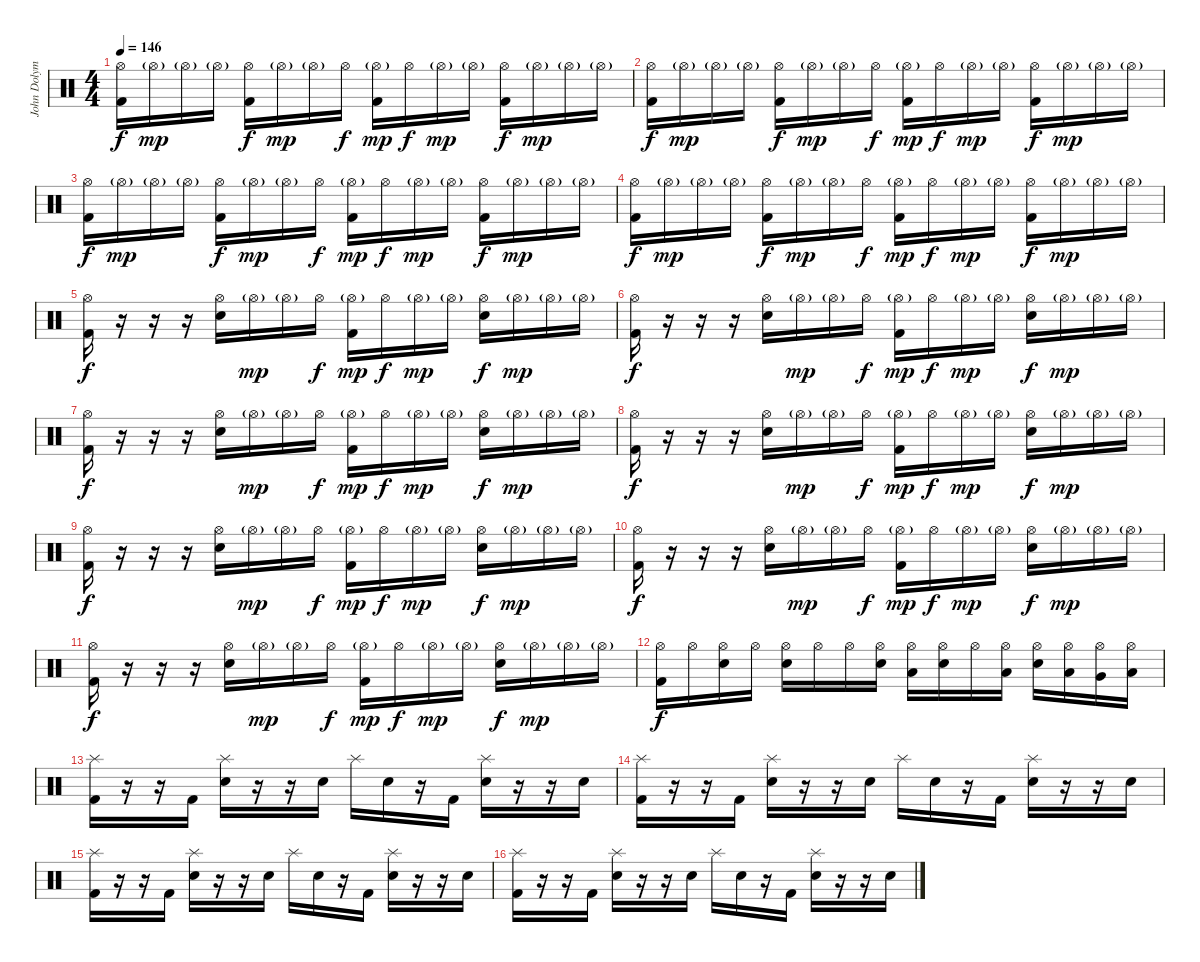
\track ("John Dolyman" "John Dolym") {instrument percussion}
\staff {score}
\articulation defaults
\ts (4 4)
\tempo 146
\clef neutral
\ks c
("Hi-Hat (open)" "Kick (hit) 2").16{dy f} "Hi-Hat (open)"{g}.16{dy mp} "Hi-Hat (open)"{g}.16 "Hi-Hat (open)"{g}.16 ("Hi-Hat (open)" "Kick (hit) 2").16{dy f} "Hi-Hat (open)"{g}.16{dy mp} "Hi-Hat (open)"{g}.16 "Hi-Hat (open)".16{dy f} ("Hi-Hat (open)"{g} "Kick (hit) 2").16{dy mp} "Hi-Hat (open)".16{dy f} "Hi-Hat (open)"{g}.16{dy mp} "Hi-Hat (open)"{g}.16 ("Hi-Hat (open)" "Kick (hit) 2").16{dy f} "Hi-Hat (open)"{g}.16{dy mp} "Hi-Hat (open)"{g}.16 "Hi-Hat (open)"{g}.16 |
("Hi-Hat (open)" "Kick (hit) 2").16{dy f} "Hi-Hat (open)"{g}.16{dy mp} "Hi-Hat (open)"{g}.16 "Hi-Hat (open)"{g}.16 ("Hi-Hat (open)" "Kick (hit) 2").16{dy f} "Hi-Hat (open)"{g}.16{dy mp} "Hi-Hat (open)"{g}.16 "Hi-Hat (open)".16{dy f} ("Hi-Hat (open)"{g} "Kick (hit) 2").16{dy mp} "Hi-Hat (open)".16{dy f} "Hi-Hat (open)"{g}.16{dy mp} "Hi-Hat (open)"{g}.16 ("Hi-Hat (open)" "Kick (hit) 2").16{dy f} "Hi-Hat (open)"{g}.16{dy mp} "Hi-Hat (open)"{g}.16 "Hi-Hat (open)"{g}.16 |
("Hi-Hat (open)" "Kick (hit) 2").16{dy f} "Hi-Hat (open)"{g}.16{dy mp} "Hi-Hat (open)"{g}.16 "Hi-Hat (open)"{g}.16 ("Hi-Hat (open)" "Kick (hit) 2").16{dy f} "Hi-Hat (open)"{g}.16{dy mp} "Hi-Hat (open)"{g}.16 "Hi-Hat (open)".16{dy f} ("Hi-Hat (open)"{g} "Kick (hit) 2").16{dy mp} "Hi-Hat (open)".16{dy f} "Hi-Hat (open)"{g}.16{dy mp} "Hi-Hat (open)"{g}.16 ("Hi-Hat (open)" "Kick (hit) 2").16{dy f} "Hi-Hat (open)"{g}.16{dy mp} "Hi-Hat (open)"{g}.16 "Hi-Hat (open)"{g}.16 |
("Hi-Hat (open)" "Kick (hit) 2").16{dy f} "Hi-Hat (open)"{g}.16{dy mp} "Hi-Hat (open)"{g}.16 "Hi-Hat (open)"{g}.16 ("Hi-Hat (open)" "Kick (hit) 2").16{dy f} "Hi-Hat (open)"{g}.16{dy mp} "Hi-Hat (open)"{g}.16 "Hi-Hat (open)".16{dy f} ("Hi-Hat (open)"{g} "Kick (hit) 2").16{dy mp} "Hi-Hat (open)".16{dy f} "Hi-Hat (open)"{g}.16{dy mp} "Hi-Hat (open)"{g}.16 ("Hi-Hat (open)" "Kick (hit) 2").16{dy f} "Hi-Hat (open)"{g}.16{dy mp} "Hi-Hat (open)"{g}.16 "Hi-Hat (open)"{g}.16 |
("Hi-Hat (open)" "Kick (hit) 2").16{dy f} r.16 r.16 r.16 ("Hi-Hat (open)" "Electric Snare (hit)").16 "Hi-Hat (open)"{g}.16{dy mp} "Hi-Hat (open)"{g}.16 "Hi-Hat (open)".16{dy f} ("Hi-Hat (open)"{g} "Kick (hit) 2").16{dy mp} "Hi-Hat (open)".16{dy f} "Hi-Hat (open)"{g}.16{dy mp} "Hi-Hat (open)"{g}.16 ("Hi-Hat (open)" "Electric Snare (hit)").16{dy f} "Hi-Hat (open)"{g}.16{dy mp} "Hi-Hat (open)"{g}.16 "Hi-Hat (open)"{g}.16 |
("Hi-Hat (open)" "Kick (hit) 2").16{dy f} r.16 r.16 r.16 ("Hi-Hat (open)" "Electric Snare (hit)").16 "Hi-Hat (open)"{g}.16{dy mp} "Hi-Hat (open)"{g}.16 "Hi-Hat (open)".16{dy f} ("Hi-Hat (open)"{g} "Kick (hit) 2").16{dy mp} "Hi-Hat (open)".16{dy f} "Hi-Hat (open)"{g}.16{dy mp} "Hi-Hat (open)"{g}.16 ("Hi-Hat (open)" "Electric Snare (hit)").16{dy f} "Hi-Hat (open)"{g}.16{dy mp} "Hi-Hat (open)"{g}.16 "Hi-Hat (open)"{g}.16 |
("Hi-Hat (open)" "Kick (hit) 2").16{dy f} r.16 r.16 r.16 ("Hi-Hat (open)" "Electric Snare (hit)").16 "Hi-Hat (open)"{g}.16{dy mp} "Hi-Hat (open)"{g}.16 "Hi-Hat (open)".16{dy f} ("Hi-Hat (open)"{g} "Kick (hit) 2").16{dy mp} "Hi-Hat (open)".16{dy f} "Hi-Hat (open)"{g}.16{dy mp} "Hi-Hat (open)"{g}.16 ("Hi-Hat (open)" "Electric Snare (hit)").16{dy f} "Hi-Hat (open)"{g}.16{dy mp} "Hi-Hat (open)"{g}.16 "Hi-Hat (open)"{g}.16 |
("Hi-Hat (open)" "Kick (hit) 2").16{dy f} r.16 r.16 r.16 ("Hi-Hat (open)" "Electric Snare (hit)").16 "Hi-Hat (open)"{g}.16{dy mp} "Hi-Hat (open)"{g}.16 "Hi-Hat (open)".16{dy f} ("Hi-Hat (open)"{g} "Kick (hit) 2").16{dy mp} "Hi-Hat (open)".16{dy f} "Hi-Hat (open)"{g}.16{dy mp} "Hi-Hat (open)"{g}.16 ("Hi-Hat (open)" "Electric Snare (hit)").16{dy f} "Hi-Hat (open)"{g}.16{dy mp} "Hi-Hat (open)"{g}.16 "Hi-Hat (open)"{g}.16 |
("Hi-Hat (open)" "Kick (hit) 2").16{dy f} r.16 r.16 r.16 ("Hi-Hat (open)" "Electric Snare (hit)").16 "Hi-Hat (open)"{g}.16{dy mp} "Hi-Hat (open)"{g}.16 "Hi-Hat (open)".16{dy f} ("Hi-Hat (open)"{g} "Kick (hit) 2").16{dy mp} "Hi-Hat (open)".16{dy f} "Hi-Hat (open)"{g}.16{dy mp} "Hi-Hat (open)"{g}.16 ("Hi-Hat (open)" "Electric Snare (hit)").16{dy f} "Hi-Hat (open)"{g}.16{dy mp} "Hi-Hat (open)"{g}.16 "Hi-Hat (open)"{g}.16 |
("Hi-Hat (open)" "Kick (hit) 2").16{dy f} r.16 r.16 r.16 ("Hi-Hat (open)" "Electric Snare (hit)").16 "Hi-Hat (open)"{g}.16{dy mp} "Hi-Hat (open)"{g}.16 "Hi-Hat (open)".16{dy f} ("Hi-Hat (open)"{g} "Kick (hit) 2").16{dy mp} "Hi-Hat (open)".16{dy f} "Hi-Hat (open)"{g}.16{dy mp} "Hi-Hat (open)"{g}.16 ("Hi-Hat (open)" "Electric Snare (hit)").16{dy f} "Hi-Hat (open)"{g}.16{dy mp} "Hi-Hat (open)"{g}.16 "Hi-Hat (open)"{g}.16 |
("Hi-Hat (open)" "Kick (hit) 2").16{dy f} r.16 r.16 r.16 ("Hi-Hat (open)" "Electric Snare (hit)").16 "Hi-Hat (open)"{g}.16{dy mp} "Hi-Hat (open)"{g}.16 "Hi-Hat (open)".16{dy f} ("Hi-Hat (open)"{g} "Kick (hit) 2").16{dy mp} "Hi-Hat (open)".16{dy f} "Hi-Hat (open)"{g}.16{dy mp} "Hi-Hat (open)"{g}.16 ("Hi-Hat (open)" "Electric Snare (hit)").16{dy f} "Hi-Hat (open)"{g}.16{dy mp} "Hi-Hat (open)"{g}.16 "Hi-Hat (open)"{g}.16 |
("Hi-Hat (open)" "Kick (hit) 2").16{dy f} "Hi-Hat (open)".16 ("Hi-Hat (open)" "Electric Snare (hit)").16 "Hi-Hat (open)".16 ("Hi-Hat (open)" "Electric Snare (hit)").16 "Hi-Hat (open)".16 "Hi-Hat (open)".16 ("Hi-Hat (open)" "Electric Snare (hit)").16 ("Hi-Hat (open)" "Low Floor Tom (hit)").16 ("Hi-Hat (open)" "Electric Snare (hit)").16 "Hi-Hat (open)".16 ("Hi-Hat (open)" "Low Floor Tom (hit)").16 ("Hi-Hat (open)" "Electric Snare (hit)").16 ("Hi-Hat (open)" "Low Tom (hit)").16 ("Hi-Hat (open)" "Very Low Tom (hit)").16 ("Hi-Hat (open)" "Low Floor Tom (hit)").16 |
("Splash (hit)" "Kick (hit) 2").16 r.16 r.16 "Kick (hit) 2".16 ("Splash (hit)" "Electric Snare (hit)").16 r.16 r.16 "Electric Snare (hit)".16 "Splash (hit)".16 "Electric Snare (hit)".16 r.16 "Kick (hit) 2".16 ("Splash (hit)" "Electric Snare (hit)").16 r.16 r.16 "Electric Snare (hit)".16 |
("Splash (hit)" "Kick (hit) 2").16 r.16 r.16 "Kick (hit) 2".16 ("Splash (hit)" "Electric Snare (hit)").16 r.16 r.16 "Electric Snare (hit)".16 "Splash (hit)".16 "Electric Snare (hit)".16 r.16 "Kick (hit) 2".16 ("Splash (hit)" "Electric Snare (hit)").16 r.16 r.16 "Electric Snare (hit)".16 |
("Splash (hit)" "Kick (hit) 2").16 r.16 r.16 "Kick (hit) 2".16 ("Splash (hit)" "Electric Snare (hit)").16 r.16 r.16 "Electric Snare (hit)".16 "Splash (hit)".16 "Electric Snare (hit)".16 r.16 "Kick (hit) 2".16 ("Splash (hit)" "Electric Snare (hit)").16 r.16 r.16 "Electric Snare (hit)".16 |
("Splash (hit)" "Kick (hit) 2").16 r.16 r.16 "Kick (hit) 2".16 ("Splash (hit)" "Electric Snare (hit)").16 r.16 r.16 "Electric Snare (hit)".16 "Splash (hit)".16 "Electric Snare (hit)".16 r.16 "Kick (hit) 2".16 ("Splash (hit)" "Electric Snare (hit)").16 r.16 r.16 "Electric Snare (hit)".16
